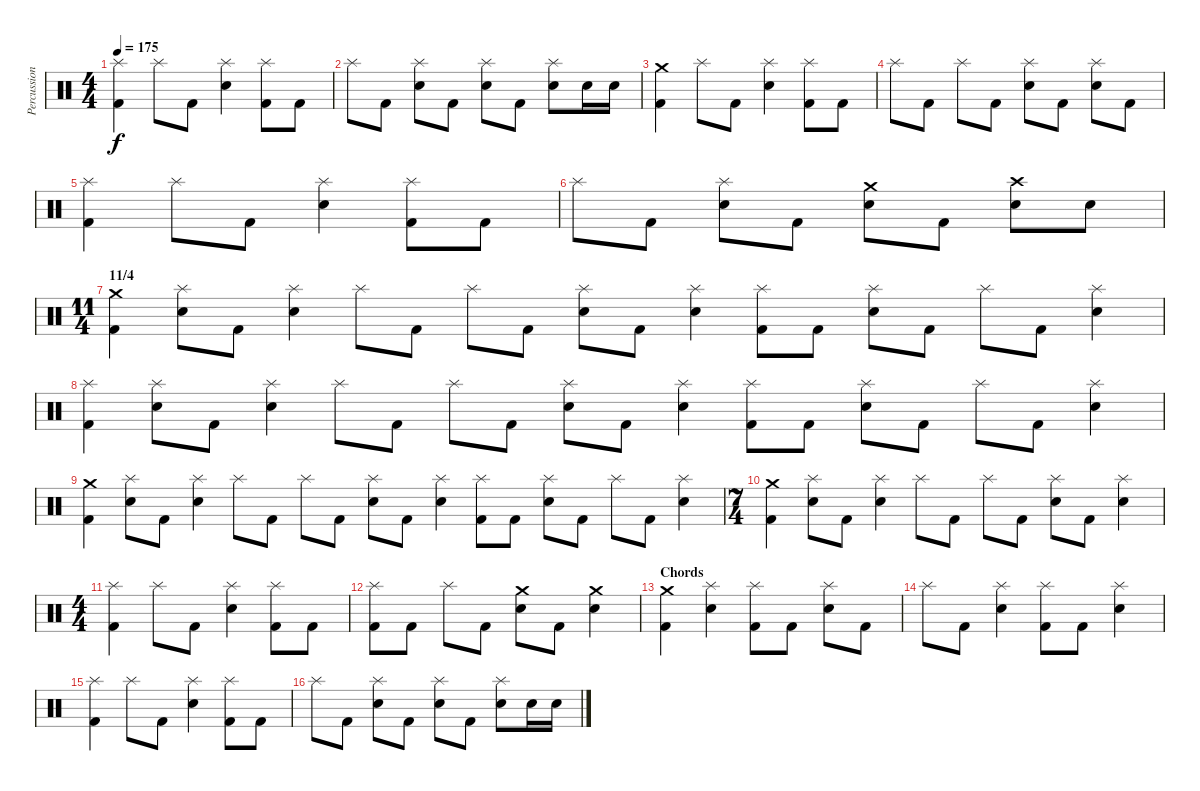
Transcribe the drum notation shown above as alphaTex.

\track ("Percussion" "Percussion") {instrument percussion}
\staff {score}
\articulation defaults
\ts (4 4)
\tempo 175
\clef neutral
\ks c
("Splash (hit)" "Kick (hit) 2").4{dy f} "Splash (hit)".8 "Kick (hit) 2".8 ("Splash (hit)" "Electric Snare (hit)").4 ("Splash (hit)" "Kick (hit) 2").8 "Kick (hit) 2".8 |
"Splash (hit)".8 "Kick (hit) 2".8 ("Splash (hit)" "Electric Snare (hit)").8 "Kick (hit) 2".8 ("Splash (hit)" "Electric Snare (hit)").8 "Kick (hit) 2".8 ("Splash (hit)" "Electric Snare (hit)").8 "Electric Snare (hit)".16 "Electric Snare (hit)".16 |
("Crash medium (hit)" "Kick (hit) 2").4 "Splash (hit)".8 "Kick (hit) 2".8 ("Splash (hit)" "Electric Snare (hit)").4 ("Splash (hit)" "Kick (hit) 2").8 "Kick (hit) 2".8 |
"Splash (hit)".8 "Kick (hit) 2".8 "Splash (hit)".8 "Kick (hit) 2".8 ("Splash (hit)" "Electric Snare (hit)").8 "Kick (hit) 2".8 ("Splash (hit)" "Electric Snare (hit)").8 "Kick (hit) 2".8 |
("Splash (hit)" "Kick (hit) 2").4 "Splash (hit)".8 "Kick (hit) 2".8 ("Splash (hit)" "Electric Snare (hit)").4 ("Splash (hit)" "Kick (hit) 2").8 "Kick (hit) 2".8 |
"Splash (hit)".8 "Kick (hit) 2".8 ("Splash (hit)" "Electric Snare (hit)").8 "Kick (hit) 2".8 ("Crash medium (hit)" "Electric Snare (hit)").8 "Kick (hit) 2".8 ("Crash high (hit)" "Electric Snare (hit)").8 "Electric Snare (hit)".8 |
\ts (11 4)
\section ("" "11/4")
("Crash medium (hit)" "Kick (hit) 2").4 ("Splash (hit)" "Electric Snare (hit)").8 "Kick (hit) 2".8 ("Splash (hit)" "Electric Snare (hit)").4 "Splash (hit)".8 "Kick (hit) 2".8 "Splash (hit)".8 "Kick (hit) 2".8 ("Splash (hit)" "Electric Snare (hit)").8 "Kick (hit) 2".8 ("Splash (hit)" "Electric Snare (hit)").4 ("Splash (hit)" "Kick (hit) 2").8 "Kick (hit) 2".8 ("Splash (hit)" "Electric Snare (hit)").8 "Kick (hit) 2".8 "Splash (hit)".8 "Kick (hit) 2".8 ("Splash (hit)" "Electric Snare (hit)").4 |
("Splash (hit)" "Kick (hit) 2").4 ("Splash (hit)" "Electric Snare (hit)").8 "Kick (hit) 2".8 ("Splash (hit)" "Electric Snare (hit)").4 "Splash (hit)".8 "Kick (hit) 2".8 "Splash (hit)".8 "Kick (hit) 2".8 ("Splash (hit)" "Electric Snare (hit)").8 "Kick (hit) 2".8 ("Splash (hit)" "Electric Snare (hit)").4 ("Splash (hit)" "Kick (hit) 2").8 "Kick (hit) 2".8 ("Splash (hit)" "Electric Snare (hit)").8 "Kick (hit) 2".8 "Splash (hit)".8 "Kick (hit) 2".8 ("Splash (hit)" "Electric Snare (hit)").4 |
("Crash medium (hit)" "Kick (hit) 2").4 ("Splash (hit)" "Electric Snare (hit)").8 "Kick (hit) 2".8 ("Splash (hit)" "Electric Snare (hit)").4 "Splash (hit)".8 "Kick (hit) 2".8 "Splash (hit)".8 "Kick (hit) 2".8 ("Splash (hit)" "Electric Snare (hit)").8 "Kick (hit) 2".8 ("Splash (hit)" "Electric Snare (hit)").4 ("Splash (hit)" "Kick (hit) 2").8 "Kick (hit) 2".8 ("Splash (hit)" "Electric Snare (hit)").8 "Kick (hit) 2".8 "Splash (hit)".8 "Kick (hit) 2".8 ("Splash (hit)" "Electric Snare (hit)").4 |
\ts (7 4)
("Crash medium (hit)" "Kick (hit) 2").4 ("Splash (hit)" "Electric Snare (hit)").8 "Kick (hit) 2".8 ("Splash (hit)" "Electric Snare (hit)").4 "Splash (hit)".8 "Kick (hit) 2".8 "Splash (hit)".8 "Kick (hit) 2".8 ("Splash (hit)" "Electric Snare (hit)").8 "Kick (hit) 2".8 ("Splash (hit)" "Electric Snare (hit)").4 |
\ts (4 4)
("Splash (hit)" "Kick (hit) 2").4 "Splash (hit)".8 "Kick (hit) 2".8 ("Splash (hit)" "Electric Snare (hit)").4 ("Splash (hit)" "Kick (hit) 2").8 "Kick (hit) 2".8 |
("Splash (hit)" "Kick (hit) 2").8 "Kick (hit) 2".8 "Splash (hit)".8 "Kick (hit) 2".8 ("Crash medium (hit)" "Electric Snare (hit)").8 "Kick (hit) 2".8 ("Crash medium (hit)" "Electric Snare (hit)").4 |
\section ("" "Chords")
("Crash medium (hit)" "Kick (hit) 2").4 ("Splash (hit)" "Electric Snare (hit)").4 ("Splash (hit)" "Kick (hit) 2").8 "Kick (hit) 2".8 ("Splash (hit)" "Electric Snare (hit)").8 "Kick (hit) 2".8 |
"Splash (hit)".8 "Kick (hit) 2".8 ("Splash (hit)" "Electric Snare (hit)").4 ("Splash (hit)" "Kick (hit) 2").8 "Kick (hit) 2".8 ("Splash (hit)" "Electric Snare (hit)").4 |
("Splash (hit)" "Kick (hit) 2").4 "Splash (hit)".8 "Kick (hit) 2".8 ("Splash (hit)" "Electric Snare (hit)").4 ("Splash (hit)" "Kick (hit) 2").8 "Kick (hit) 2".8 |
"Splash (hit)".8 "Kick (hit) 2".8 ("Splash (hit)" "Electric Snare (hit)").8 "Kick (hit) 2".8 ("Splash (hit)" "Electric Snare (hit)").8 "Kick (hit) 2".8 ("Splash (hit)" "Electric Snare (hit)").8 "Electric Snare (hit)".16 "Electric Snare (hit)".16
